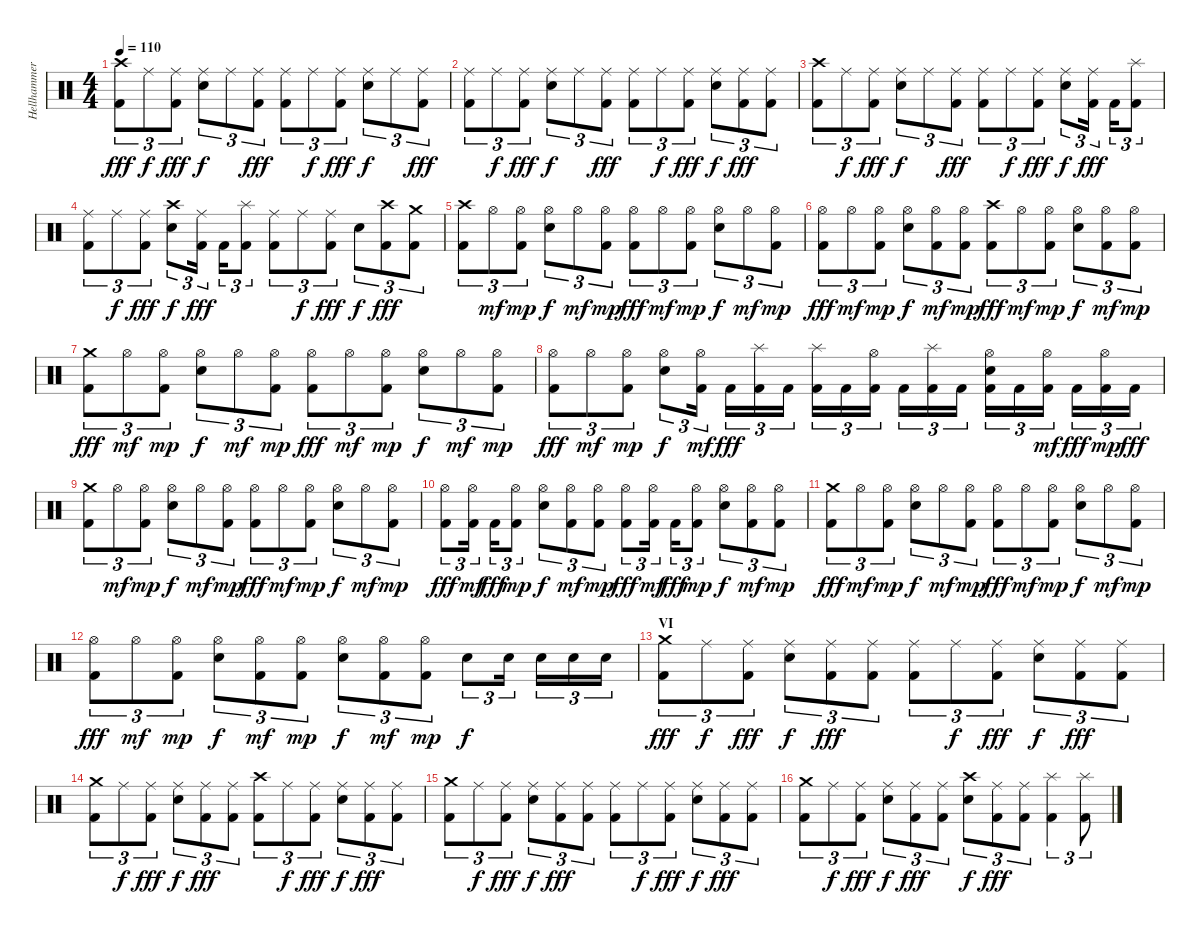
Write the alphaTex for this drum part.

\track ("Hellhammer" "Hellhammer") {instrument percussion}
\staff {score}
\articulation defaults
\ts (4 4)
\tempo 110
\clef neutral
\ks c
("Kick (hit) 2" "Crash high (hit)").8{tu (3 2) dy fff} "Ride (middle)".8{tu (3 2) dy f} ("Kick (hit) 2" "Ride (middle)").8{tu (3 2) dy fff} ("Electric Snare (hit)" "Ride (middle)").8{tu (3 2) dy f} "Ride (middle)".8{tu (3 2)} ("Kick (hit) 2" "Ride (middle)").8{tu (3 2) dy fff} ("Kick (hit) 2" "Ride (middle)").8{tu (3 2)} "Ride (middle)".8{tu (3 2) dy f} ("Kick (hit) 2" "Ride (middle)").8{tu (3 2) dy fff} ("Electric Snare (hit)" "Ride (middle)").8{tu (3 2) dy f} "Ride (middle)".8{tu (3 2)} ("Kick (hit) 2" "Ride (middle)").8{tu (3 2) dy fff} |
("Kick (hit) 2" "Ride (middle)").8{tu (3 2)} "Ride (middle)".8{tu (3 2) dy f} ("Kick (hit) 2" "Ride (middle)").8{tu (3 2) dy fff} ("Electric Snare (hit)" "Ride (middle)").8{tu (3 2) dy f} "Ride (middle)".8{tu (3 2)} ("Kick (hit) 2" "Ride (middle)").8{tu (3 2) dy fff} ("Kick (hit) 2" "Ride (middle)").8{tu (3 2)} "Ride (middle)".8{tu (3 2) dy f} ("Kick (hit) 2" "Ride (middle)").8{tu (3 2) dy fff} ("Electric Snare (hit)" "Ride (middle)").8{tu (3 2) dy f} ("Kick (hit) 2" "Ride (middle)").8{tu (3 2) dy fff} ("Kick (hit) 2" "Ride (middle)").8{tu (3 2)} |
("Kick (hit) 2" "Crash high (hit)").8{tu (3 2)} "Ride (middle)".8{tu (3 2) dy f} ("Kick (hit) 2" "Ride (middle)").8{tu (3 2) dy fff} ("Electric Snare (hit)" "Ride (middle)").8{tu (3 2) dy f} "Ride (middle)".8{tu (3 2)} ("Kick (hit) 2" "Ride (middle)").8{tu (3 2) dy fff} ("Kick (hit) 2" "Ride (middle)").8{tu (3 2)} "Ride (middle)".8{tu (3 2) dy f} ("Kick (hit) 2" "Ride (middle)").8{tu (3 2) dy fff} ("Electric Snare (hit)" "Ride (middle)").8{tu (3 2) dy f} ("Kick (hit) 2" "Ride (middle)").16{tu (3 2) dy fff} "Kick (hit) 2".16{tu (3 2)} ("Kick (hit) 2" "Splash (hit)").8{tu (3 2)} |
("Kick (hit) 2" "Ride (middle)").8{tu (3 2)} "Ride (middle)".8{tu (3 2) dy f} ("Kick (hit) 2" "Ride (middle)").8{tu (3 2) dy fff} ("Electric Snare (hit)" "Crash high (hit)").8{tu (3 2) dy f} ("Kick (hit) 2" "Ride (middle)").16{tu (3 2) dy fff} "Kick (hit) 2".16{tu (3 2)} ("Kick (hit) 2" "Splash (hit)").8{tu (3 2)} ("Kick (hit) 2" "Ride (middle)").8{tu (3 2)} "Ride (middle)".8{tu (3 2) dy f} ("Kick (hit) 2" "Ride (middle)").8{tu (3 2) dy fff} "Electric Snare (hit)".8{tu (3 2) dy f} ("Kick (hit) 2" "Crash high (hit)").8{tu (3 2) dy fff} ("Kick (hit) 2" "Crash medium (hit)").8{tu (3 2)} |
("Kick (hit) 2" "Crash high (hit)").8{tu (3 2)} "Hi-Hat (open)".8{tu (3 2) dy mf} ("Kick (hit) 2" "Hi-Hat (open)").8{tu (3 2) dy mp} ("Electric Snare (hit)" "Hi-Hat (open)").8{tu (3 2) dy f} "Hi-Hat (open)".8{tu (3 2) dy mf} ("Kick (hit) 2" "Hi-Hat (open)").8{tu (3 2) dy mp} ("Kick (hit) 2" "Hi-Hat (open)").8{tu (3 2) dy fff} "Hi-Hat (open)".8{tu (3 2) dy mf} ("Kick (hit) 2" "Hi-Hat (open)").8{tu (3 2) dy mp} ("Electric Snare (hit)" "Hi-Hat (open)").8{tu (3 2) dy f} "Hi-Hat (open)".8{tu (3 2) dy mf} ("Kick (hit) 2" "Hi-Hat (open)").8{tu (3 2) dy mp} |
("Kick (hit) 2" "Hi-Hat (open)").8{tu (3 2) dy fff} "Hi-Hat (open)".8{tu (3 2) dy mf} ("Kick (hit) 2" "Hi-Hat (open)").8{tu (3 2) dy mp} ("Electric Snare (hit)" "Hi-Hat (open)").8{tu (3 2) dy f} ("Kick (hit) 2" "Hi-Hat (open)").8{tu (3 2) dy mf} ("Kick (hit) 2" "Hi-Hat (open)").8{tu (3 2) dy mp} ("Kick (hit) 2" "Crash high (hit)").8{tu (3 2) dy fff} "Hi-Hat (open)".8{tu (3 2) dy mf} ("Kick (hit) 2" "Hi-Hat (open)").8{tu (3 2) dy mp} ("Electric Snare (hit)" "Hi-Hat (open)").8{tu (3 2) dy f} ("Kick (hit) 2" "Hi-Hat (open)").8{tu (3 2) dy mf} ("Kick (hit) 2" "Hi-Hat (open)").8{tu (3 2) dy mp} |
("Kick (hit) 2" "Crash medium (hit)").8{tu (3 2) dy fff} "Hi-Hat (open)".8{tu (3 2) dy mf} ("Kick (hit) 2" "Hi-Hat (open)").8{tu (3 2) dy mp} ("Electric Snare (hit)" "Hi-Hat (open)").8{tu (3 2) dy f} "Hi-Hat (open)".8{tu (3 2) dy mf} ("Kick (hit) 2" "Hi-Hat (open)").8{tu (3 2) dy mp} ("Kick (hit) 2" "Hi-Hat (open)").8{tu (3 2) dy fff} "Hi-Hat (open)".8{tu (3 2) dy mf} ("Kick (hit) 2" "Hi-Hat (open)").8{tu (3 2) dy mp} ("Electric Snare (hit)" "Hi-Hat (open)").8{tu (3 2) dy f} "Hi-Hat (open)".8{tu (3 2) dy mf} ("Kick (hit) 2" "Hi-Hat (open)").8{tu (3 2) dy mp} |
("Kick (hit) 2" "Hi-Hat (open)").8{tu (3 2) dy fff} "Hi-Hat (open)".8{tu (3 2) dy mf} ("Kick (hit) 2" "Hi-Hat (open)").8{tu (3 2) dy mp} ("Electric Snare (hit)" "Hi-Hat (open)").8{tu (3 2) dy f} ("Kick (hit) 2" "Hi-Hat (open)").16{tu (3 2) dy mf} "Kick (hit) 2".16{tu (3 2) dy fff} ("Kick (hit) 2" "Splash (hit)").16{tu (3 2)} "Kick (hit) 2".16{tu (3 2)} ("Kick (hit) 2" "Splash (hit)").16{tu (3 2)} "Kick (hit) 2".16{tu (3 2)} ("Kick (hit) 2" "Hi-Hat (open)").16{tu (3 2)} "Kick (hit) 2".16{tu (3 2)} ("Kick (hit) 2" "Splash (hit)").16{tu (3 2)} "Kick (hit) 2".16{tu (3 2)} ("Kick (hit) 2" "Electric Snare (hit)" "Hi-Hat (open)").16{tu (3 2)} "Kick (hit) 2".16{tu (3 2)} ("Kick (hit) 2" "Hi-Hat (open)").16{tu (3 2) dy mf} "Kick (hit) 2".16{tu (3 2) dy fff} ("Kick (hit) 2" "Hi-Hat (open)").16{tu (3 2) dy mp} "Kick (hit) 2".16{tu (3 2) dy fff} |
("Kick (hit) 2" "Crash medium (hit)").8{tu (3 2)} "Hi-Hat (open)".8{tu (3 2) dy mf} ("Kick (hit) 2" "Hi-Hat (open)").8{tu (3 2) dy mp} ("Electric Snare (hit)" "Hi-Hat (open)").8{tu (3 2) dy f} "Hi-Hat (open)".8{tu (3 2) dy mf} ("Kick (hit) 2" "Hi-Hat (open)").8{tu (3 2) dy mp} ("Kick (hit) 2" "Hi-Hat (open)").8{tu (3 2) dy fff} "Hi-Hat (open)".8{tu (3 2) dy mf} ("Kick (hit) 2" "Hi-Hat (open)").8{tu (3 2) dy mp} ("Electric Snare (hit)" "Hi-Hat (open)").8{tu (3 2) dy f} "Hi-Hat (open)".8{tu (3 2) dy mf} ("Kick (hit) 2" "Hi-Hat (open)").8{tu (3 2) dy mp} |
("Kick (hit) 2" "Hi-Hat (open)").8{tu (3 2) dy fff} ("Kick (hit) 2" "Hi-Hat (open)").16{tu (3 2) dy mf} "Kick (hit) 2".16{tu (3 2) dy fff} ("Kick (hit) 2" "Hi-Hat (open)").8{tu (3 2) dy mp} ("Electric Snare (hit)" "Hi-Hat (open)").8{tu (3 2) dy f} ("Kick (hit) 2" "Hi-Hat (open)").8{tu (3 2) dy mf} ("Kick (hit) 2" "Hi-Hat (open)").8{tu (3 2) dy mp} ("Kick (hit) 2" "Hi-Hat (open)").8{tu (3 2) dy fff} ("Kick (hit) 2" "Hi-Hat (open)").16{tu (3 2) dy mf} "Kick (hit) 2".16{tu (3 2) dy fff} ("Kick (hit) 2" "Hi-Hat (open)").8{tu (3 2) dy mp} ("Electric Snare (hit)" "Hi-Hat (open)").8{tu (3 2) dy f} ("Kick (hit) 2" "Hi-Hat (open)").8{tu (3 2) dy mf} ("Kick (hit) 2" "Hi-Hat (open)").8{tu (3 2) dy mp} |
("Kick (hit) 2" "Crash medium (hit)").8{tu (3 2) dy fff} "Hi-Hat (open)".8{tu (3 2) dy mf} ("Kick (hit) 2" "Hi-Hat (open)").8{tu (3 2) dy mp} ("Electric Snare (hit)" "Hi-Hat (open)").8{tu (3 2) dy f} "Hi-Hat (open)".8{tu (3 2) dy mf} ("Kick (hit) 2" "Hi-Hat (open)").8{tu (3 2) dy mp} ("Kick (hit) 2" "Hi-Hat (open)").8{tu (3 2) dy fff} "Hi-Hat (open)".8{tu (3 2) dy mf} ("Kick (hit) 2" "Hi-Hat (open)").8{tu (3 2) dy mp} ("Electric Snare (hit)" "Hi-Hat (open)").8{tu (3 2) dy f} "Hi-Hat (open)".8{tu (3 2) dy mf} ("Kick (hit) 2" "Hi-Hat (open)").8{tu (3 2) dy mp} |
("Kick (hit) 2" "Hi-Hat (open)").8{tu (3 2) dy fff} "Hi-Hat (open)".8{tu (3 2) dy mf} ("Kick (hit) 2" "Hi-Hat (open)").8{tu (3 2) dy mp} ("Electric Snare (hit)" "Hi-Hat (open)").8{tu (3 2) dy f} ("Kick (hit) 2" "Hi-Hat (open)").8{tu (3 2) dy mf} ("Kick (hit) 2" "Hi-Hat (open)").8{tu (3 2) dy mp} ("Electric Snare (hit)" "Hi-Hat (open)").8{tu (3 2) dy f} ("Kick (hit) 2" "Hi-Hat (open)").8{tu (3 2) dy mf} ("Kick (hit) 2" "Hi-Hat (open)").8{tu (3 2) dy mp} "Electric Snare (hit)".8{tu (3 2) dy f} "Electric Snare (hit)".16{tu (3 2)} "Electric Snare (hit)".16{tu (3 2)} "Electric Snare (hit)".16{tu (3 2)} "Electric Snare (hit)".16{tu (3 2)} |
\section ("" "VI")
("Kick (hit) 2" "Crash medium (hit)").8{tu (3 2) dy fff} "Ride (middle)".8{tu (3 2) dy f} ("Kick (hit) 2" "Ride (middle)").8{tu (3 2) dy fff} ("Electric Snare (hit)" "Ride (middle)").8{tu (3 2) dy f} ("Kick (hit) 2" "Ride (middle)").8{tu (3 2) dy fff} ("Kick (hit) 2" "Ride (middle)").8{tu (3 2)} ("Kick (hit) 2" "Ride (middle)").8{tu (3 2)} "Ride (middle)".8{tu (3 2) dy f} ("Kick (hit) 2" "Ride (middle)").8{tu (3 2) dy fff} ("Electric Snare (hit)" "Ride (middle)").8{tu (3 2) dy f} ("Kick (hit) 2" "Ride (middle)").8{tu (3 2) dy fff} ("Kick (hit) 2" "Ride (middle)").8{tu (3 2)} |
("Kick (hit) 2" "Crash medium (hit)").8{tu (3 2)} "Ride (middle)".8{tu (3 2) dy f} ("Kick (hit) 2" "Ride (middle)").8{tu (3 2) dy fff} ("Electric Snare (hit)" "Ride (middle)").8{tu (3 2) dy f} ("Kick (hit) 2" "Ride (middle)").8{tu (3 2) dy fff} ("Kick (hit) 2" "Ride (middle)").8{tu (3 2)} ("Kick (hit) 2" "Crash high (hit)").8{tu (3 2)} "Ride (middle)".8{tu (3 2) dy f} ("Kick (hit) 2" "Ride (middle)").8{tu (3 2) dy fff} ("Electric Snare (hit)" "Ride (middle)").8{tu (3 2) dy f} ("Kick (hit) 2" "Ride (middle)").8{tu (3 2) dy fff} ("Kick (hit) 2" "Ride (middle)").8{tu (3 2)} |
("Kick (hit) 2" "Crash medium (hit)").8{tu (3 2)} "Ride (middle)".8{tu (3 2) dy f} ("Kick (hit) 2" "Ride (middle)").8{tu (3 2) dy fff} ("Electric Snare (hit)" "Ride (middle)").8{tu (3 2) dy f} ("Kick (hit) 2" "Ride (middle)").8{tu (3 2) dy fff} ("Kick (hit) 2" "Ride (middle)").8{tu (3 2)} ("Kick (hit) 2" "Ride (middle)").8{tu (3 2)} "Ride (middle)".8{tu (3 2) dy f} ("Kick (hit) 2" "Ride (middle)").8{tu (3 2) dy fff} ("Electric Snare (hit)" "Ride (middle)").8{tu (3 2) dy f} ("Kick (hit) 2" "Ride (middle)").8{tu (3 2) dy fff} ("Kick (hit) 2" "Ride (middle)").8{tu (3 2)} |
("Kick (hit) 2" "Crash medium (hit)").8{tu (3 2)} "Ride (middle)".8{tu (3 2) dy f} ("Kick (hit) 2" "Ride (middle)").8{tu (3 2) dy fff} ("Electric Snare (hit)" "Ride (middle)").8{tu (3 2) dy f} ("Kick (hit) 2" "Ride (middle)").8{tu (3 2) dy fff} ("Kick (hit) 2" "Ride (middle)").8{tu (3 2)} ("Electric Snare (hit)" "Crash high (hit)").8{tu (3 2) dy f} ("Kick (hit) 2" "Ride (middle)").8{tu (3 2) dy fff} ("Kick (hit) 2" "Ride (middle)").8{tu (3 2)} ("Kick (hit) 2" "Splash (hit)").4{tu (3 2)} ("Kick (hit) 2" "Splash (hit)").8{tu (3 2)}
